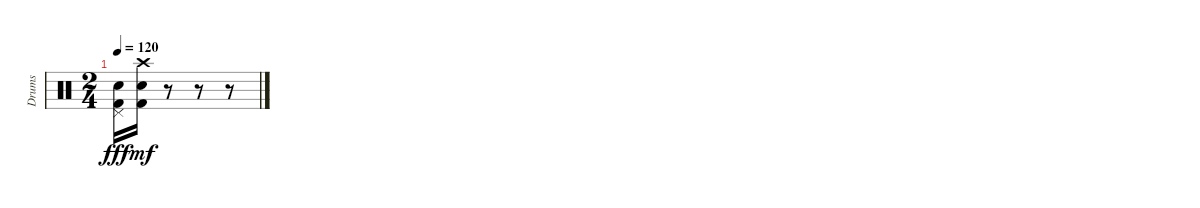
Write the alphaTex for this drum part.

\track ("Drums" "Drums") {instrument percussion}
\staff {score}
\articulation defaults
\ts (2 4)
\tempo 120
\clef neutral
\ks c
("Electric Snare (hit)" "Kick (hit) 2" "Pedal Hi-Hat (hit)").16{dy fff} ("Electric Snare (hit)" "Kick (hit) 2" "Crash high (hit)").16{dy mf} r.8 r.8 r.8
